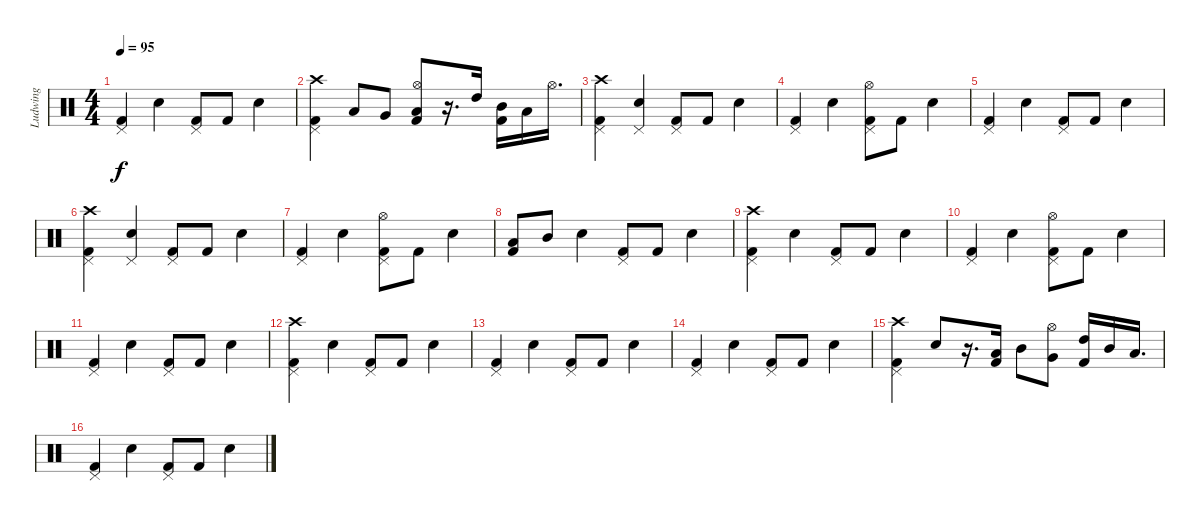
\track ("Ludwing" "Ludwing") {instrument percussion}
\staff {score}
\articulation defaults
\ts (4 4)
\tempo 95
\clef neutral
\ks c
("Kick (hit) 2" "Pedal Hi-Hat (hit)").4{dy f} "Snare (hit) 2".4 ("Kick (hit) 2" "Pedal Hi-Hat (hit)").8 "Kick (hit) 2".8 "Snare (hit) 2".4 |
("Kick (hit) 2" "Pedal Hi-Hat (hit)" "Crash high (hit)").4 "Low Floor Tom (hit)".8 "Very Low Tom (hit)".8 ("Kick (hit) 2" "Hi-Hat (open)" "Low Tom (hit)").8 r.16{d} "High Tom (hit)".16 ("Kick (hit) 2" "Mid Tom (hit)").16 "Low Tom (hit)".16 "Hi-Hat (open)".16{d} |
("Kick (hit) 2" "Pedal Hi-Hat (hit)" "Crash high (hit)").4 ("Pedal Hi-Hat (hit)" "Snare (hit) 2").4 ("Kick (hit) 2" "Pedal Hi-Hat (hit)").8 "Kick (hit) 2".8 "Snare (hit) 2".4 |
("Kick (hit) 2" "Pedal Hi-Hat (hit)").4 "Snare (hit) 2".4 ("Kick (hit) 2" "Pedal Hi-Hat (hit)" "Hi-Hat (open)").8 "Kick (hit) 2".8 "Snare (hit) 2".4 |
("Kick (hit) 2" "Pedal Hi-Hat (hit)").4 "Snare (hit) 2".4 ("Kick (hit) 2" "Pedal Hi-Hat (hit)").8 "Kick (hit) 2".8 "Snare (hit) 2".4 |
("Kick (hit) 2" "Pedal Hi-Hat (hit)" "Crash high (hit)").4 ("Pedal Hi-Hat (hit)" "Snare (hit) 2").4 ("Kick (hit) 2" "Pedal Hi-Hat (hit)").8 "Kick (hit) 2".8 "Snare (hit) 2".4 |
("Kick (hit) 2" "Pedal Hi-Hat (hit)").4 "Snare (hit) 2".4 ("Kick (hit) 2" "Pedal Hi-Hat (hit)" "Hi-Hat (open)").8 "Kick (hit) 2".8 "Snare (hit) 2".4 |
("Kick (hit) 2" "Low Tom (hit)").8 "Mid Tom (hit)".8 "Snare (hit) 2".4 ("Kick (hit) 2" "Pedal Hi-Hat (hit)").8 "Kick (hit) 2".8 "Snare (hit) 2".4 |
("Kick (hit) 2" "Pedal Hi-Hat (hit)" "Crash high (hit)").4 "Snare (hit) 2".4 ("Kick (hit) 2" "Pedal Hi-Hat (hit)").8 "Kick (hit) 2".8 "Snare (hit) 2".4 |
("Kick (hit) 2" "Pedal Hi-Hat (hit)").4 "Snare (hit) 2".4 ("Kick (hit) 2" "Pedal Hi-Hat (hit)" "Hi-Hat (open)").8 "Kick (hit) 2".8 "Snare (hit) 2".4 |
("Kick (hit) 2" "Pedal Hi-Hat (hit)").4 "Snare (hit) 2".4 ("Kick (hit) 2" "Pedal Hi-Hat (hit)").8 "Kick (hit) 2".8 "Snare (hit) 2".4 |
("Kick (hit) 2" "Pedal Hi-Hat (hit)" "Crash high (hit)").4 "Snare (hit) 2".4 ("Kick (hit) 2" "Pedal Hi-Hat (hit)").8 "Kick (hit) 2".8 "Snare (hit) 2".4 |
("Kick (hit) 2" "Pedal Hi-Hat (hit)").4 "Snare (hit) 2".4 ("Kick (hit) 2" "Pedal Hi-Hat (hit)").8 "Kick (hit) 2".8 "Snare (hit) 2".4 |
("Kick (hit) 2" "Pedal Hi-Hat (hit)").4 "Snare (hit) 2".4 ("Kick (hit) 2" "Pedal Hi-Hat (hit)").8 "Kick (hit) 2".8 "Snare (hit) 2".4 |
("Kick (hit) 2" "Pedal Hi-Hat (hit)" "Crash high (hit)").4 "Snare (hit) 2".8 r.16{d} ("Kick (hit) 2" "Low Tom (hit)").16 "Mid Tom (hit)".8 ("Very Low Tom (hit)" "Hi-Hat (open)").8 ("Kick (hit) 2" "High Tom (hit)").16 "Mid Tom (hit)".16 "Low Tom (hit)".16{d} |
("Kick (hit) 2" "Pedal Hi-Hat (hit)").4 "Snare (hit) 2".4 ("Kick (hit) 2" "Pedal Hi-Hat (hit)").8 "Kick (hit) 2".8 "Snare (hit) 2".4
